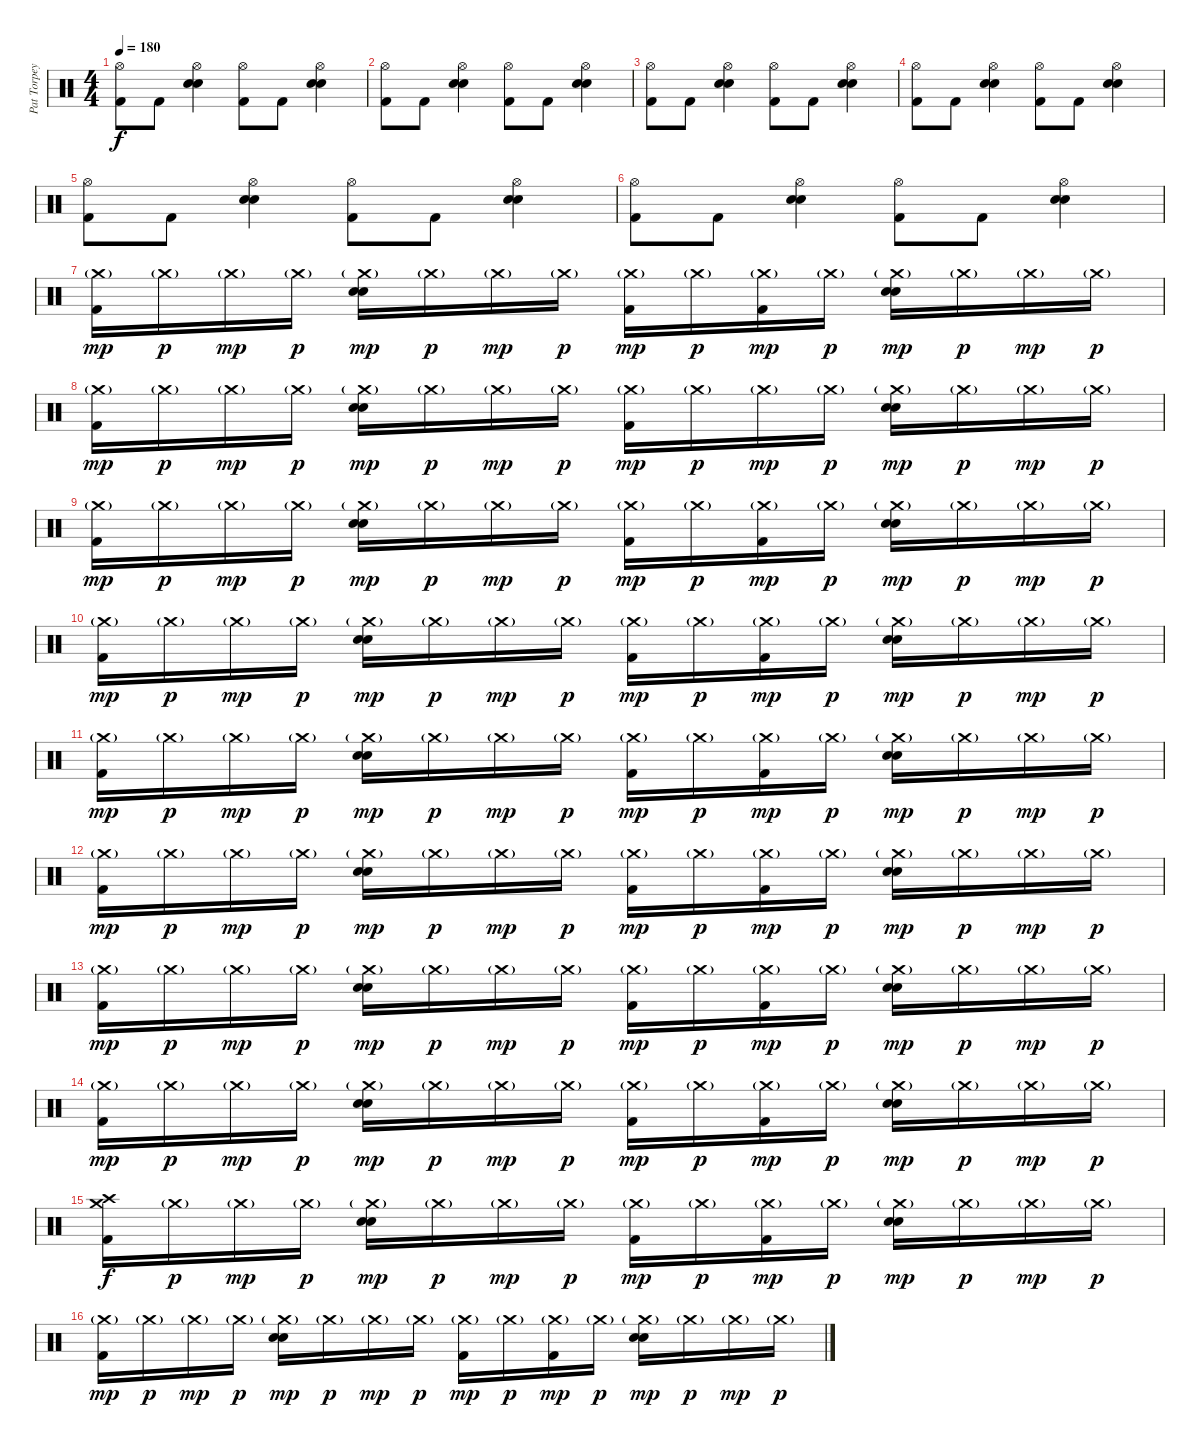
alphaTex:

\track ("Pat Torpey" "Pat Torpey") {instrument percussion}
\staff {score}
\articulation defaults
\ts (4 4)
\tempo 180
\clef neutral
\ks c
("Hi-Hat (open)" "Kick (hit) 2").8{dy f} "Kick (hit) 2".8 ("Hi-Hat (open)" "Snare (hit) 2" "Electric Snare (hit)").4 ("Hi-Hat (open)" "Kick (hit) 2").8 "Kick (hit) 2".8 ("Hi-Hat (open)" "Snare (hit) 2" "Electric Snare (hit)").4 |
("Hi-Hat (open)" "Kick (hit) 2").8 "Kick (hit) 2".8 ("Hi-Hat (open)" "Snare (hit) 2" "Electric Snare (hit)").4 ("Hi-Hat (open)" "Kick (hit) 2").8 "Kick (hit) 2".8 ("Hi-Hat (open)" "Snare (hit) 2" "Electric Snare (hit)").4 |
("Hi-Hat (open)" "Kick (hit) 2").8 "Kick (hit) 2".8 ("Hi-Hat (open)" "Snare (hit) 2" "Electric Snare (hit)").4 ("Hi-Hat (open)" "Kick (hit) 2").8 "Kick (hit) 2".8 ("Hi-Hat (open)" "Snare (hit) 2" "Electric Snare (hit)").4 |
("Hi-Hat (open)" "Kick (hit) 2").8 "Kick (hit) 2".8 ("Hi-Hat (open)" "Snare (hit) 2" "Electric Snare (hit)").4 ("Hi-Hat (open)" "Kick (hit) 2").8 "Kick (hit) 2".8 ("Hi-Hat (open)" "Snare (hit) 2" "Electric Snare (hit)").4 |
("Hi-Hat (open)" "Kick (hit) 2").8 "Kick (hit) 2".8 ("Hi-Hat (open)" "Snare (hit) 2" "Electric Snare (hit)").4 ("Hi-Hat (open)" "Kick (hit) 2").8 "Kick (hit) 2".8 ("Hi-Hat (open)" "Snare (hit) 2" "Electric Snare (hit)").4 |
("Hi-Hat (open)" "Kick (hit) 2").8 "Kick (hit) 2".8 ("Hi-Hat (open)" "Snare (hit) 2" "Electric Snare (hit)").4 ("Hi-Hat (open)" "Kick (hit) 2").8 "Kick (hit) 2".8 ("Hi-Hat (open)" "Snare (hit) 2" "Electric Snare (hit)").4 |
("Crash medium (hit)"{g} "Kick (hit) 2").16{dy mp} "Crash medium (hit)"{g}.16{dy p} "Crash medium (hit)"{g}.16{dy mp} "Crash medium (hit)"{g}.16{dy p} ("Crash medium (hit)"{g} "Snare (hit) 2" "Electric Snare (hit)").16{dy mp} "Crash medium (hit)"{g}.16{dy p} "Crash medium (hit)"{g}.16{dy mp} "Crash medium (hit)"{g}.16{dy p} ("Crash medium (hit)"{g} "Kick (hit) 2").16{dy mp} "Crash medium (hit)"{g}.16{dy p} ("Crash medium (hit)"{g} "Kick (hit) 2").16{dy mp} "Crash medium (hit)"{g}.16{dy p} ("Crash medium (hit)"{g} "Snare (hit) 2" "Electric Snare (hit)").16{dy mp} "Crash medium (hit)"{g}.16{dy p} "Crash medium (hit)"{g}.16{dy mp} "Crash medium (hit)"{g}.16{dy p} |
("Crash medium (hit)"{g} "Kick (hit) 2").16{dy mp} "Crash medium (hit)"{g}.16{dy p} "Crash medium (hit)"{g}.16{dy mp} "Crash medium (hit)"{g}.16{dy p} ("Crash medium (hit)"{g} "Snare (hit) 2" "Electric Snare (hit)").16{dy mp} "Crash medium (hit)"{g}.16{dy p} "Crash medium (hit)"{g}.16{dy mp} "Crash medium (hit)"{g}.16{dy p} ("Crash medium (hit)"{g} "Kick (hit) 2").16{dy mp} "Crash medium (hit)"{g}.16{dy p} "Crash medium (hit)"{g}.16{dy mp} "Crash medium (hit)"{g}.16{dy p} ("Crash medium (hit)"{g} "Snare (hit) 2" "Electric Snare (hit)").16{dy mp} "Crash medium (hit)"{g}.16{dy p} "Crash medium (hit)"{g}.16{dy mp} "Crash medium (hit)"{g}.16{dy p} |
("Crash medium (hit)"{g} "Kick (hit) 2").16{dy mp} "Crash medium (hit)"{g}.16{dy p} "Crash medium (hit)"{g}.16{dy mp} "Crash medium (hit)"{g}.16{dy p} ("Crash medium (hit)"{g} "Snare (hit) 2" "Electric Snare (hit)").16{dy mp} "Crash medium (hit)"{g}.16{dy p} "Crash medium (hit)"{g}.16{dy mp} "Crash medium (hit)"{g}.16{dy p} ("Crash medium (hit)"{g} "Kick (hit) 2").16{dy mp} "Crash medium (hit)"{g}.16{dy p} ("Crash medium (hit)"{g} "Kick (hit) 2").16{dy mp} "Crash medium (hit)"{g}.16{dy p} ("Crash medium (hit)"{g} "Snare (hit) 2" "Electric Snare (hit)").16{dy mp} "Crash medium (hit)"{g}.16{dy p} "Crash medium (hit)"{g}.16{dy mp} "Crash medium (hit)"{g}.16{dy p} |
("Crash medium (hit)"{g} "Kick (hit) 2").16{dy mp} "Crash medium (hit)"{g}.16{dy p} "Crash medium (hit)"{g}.16{dy mp} "Crash medium (hit)"{g}.16{dy p} ("Crash medium (hit)"{g} "Snare (hit) 2" "Electric Snare (hit)").16{dy mp} "Crash medium (hit)"{g}.16{dy p} "Crash medium (hit)"{g}.16{dy mp} "Crash medium (hit)"{g}.16{dy p} ("Crash medium (hit)"{g} "Kick (hit) 2").16{dy mp} "Crash medium (hit)"{g}.16{dy p} ("Crash medium (hit)"{g} "Kick (hit) 2").16{dy mp} "Crash medium (hit)"{g}.16{dy p} ("Crash medium (hit)"{g} "Snare (hit) 2" "Electric Snare (hit)").16{dy mp} "Crash medium (hit)"{g}.16{dy p} "Crash medium (hit)"{g}.16{dy mp} "Crash medium (hit)"{g}.16{dy p} |
("Crash medium (hit)"{g} "Kick (hit) 2").16{dy mp} "Crash medium (hit)"{g}.16{dy p} "Crash medium (hit)"{g}.16{dy mp} "Crash medium (hit)"{g}.16{dy p} ("Crash medium (hit)"{g} "Snare (hit) 2" "Electric Snare (hit)").16{dy mp} "Crash medium (hit)"{g}.16{dy p} "Crash medium (hit)"{g}.16{dy mp} "Crash medium (hit)"{g}.16{dy p} ("Crash medium (hit)"{g} "Kick (hit) 2").16{dy mp} "Crash medium (hit)"{g}.16{dy p} ("Crash medium (hit)"{g} "Kick (hit) 2").16{dy mp} "Crash medium (hit)"{g}.16{dy p} ("Crash medium (hit)"{g} "Snare (hit) 2" "Electric Snare (hit)").16{dy mp} "Crash medium (hit)"{g}.16{dy p} "Crash medium (hit)"{g}.16{dy mp} "Crash medium (hit)"{g}.16{dy p} |
("Crash medium (hit)"{g} "Kick (hit) 2").16{dy mp} "Crash medium (hit)"{g}.16{dy p} "Crash medium (hit)"{g}.16{dy mp} "Crash medium (hit)"{g}.16{dy p} ("Crash medium (hit)"{g} "Snare (hit) 2" "Electric Snare (hit)").16{dy mp} "Crash medium (hit)"{g}.16{dy p} "Crash medium (hit)"{g}.16{dy mp} "Crash medium (hit)"{g}.16{dy p} ("Crash medium (hit)"{g} "Kick (hit) 2").16{dy mp} "Crash medium (hit)"{g}.16{dy p} ("Crash medium (hit)"{g} "Kick (hit) 2").16{dy mp} "Crash medium (hit)"{g}.16{dy p} ("Crash medium (hit)"{g} "Snare (hit) 2" "Electric Snare (hit)").16{dy mp} "Crash medium (hit)"{g}.16{dy p} "Crash medium (hit)"{g}.16{dy mp} "Crash medium (hit)"{g}.16{dy p} |
("Crash medium (hit)"{g} "Kick (hit) 2").16{dy mp} "Crash medium (hit)"{g}.16{dy p} "Crash medium (hit)"{g}.16{dy mp} "Crash medium (hit)"{g}.16{dy p} ("Crash medium (hit)"{g} "Snare (hit) 2" "Electric Snare (hit)").16{dy mp} "Crash medium (hit)"{g}.16{dy p} "Crash medium (hit)"{g}.16{dy mp} "Crash medium (hit)"{g}.16{dy p} ("Crash medium (hit)"{g} "Kick (hit) 2").16{dy mp} "Crash medium (hit)"{g}.16{dy p} ("Crash medium (hit)"{g} "Kick (hit) 2").16{dy mp} "Crash medium (hit)"{g}.16{dy p} ("Crash medium (hit)"{g} "Snare (hit) 2" "Electric Snare (hit)").16{dy mp} "Crash medium (hit)"{g}.16{dy p} "Crash medium (hit)"{g}.16{dy mp} "Crash medium (hit)"{g}.16{dy p} |
("Crash medium (hit)"{g} "Kick (hit) 2").16{dy mp} "Crash medium (hit)"{g}.16{dy p} "Crash medium (hit)"{g}.16{dy mp} "Crash medium (hit)"{g}.16{dy p} ("Crash medium (hit)"{g} "Snare (hit) 2" "Electric Snare (hit)").16{dy mp} "Crash medium (hit)"{g}.16{dy p} "Crash medium (hit)"{g}.16{dy mp} "Crash medium (hit)"{g}.16{dy p} ("Crash medium (hit)"{g} "Kick (hit) 2").16{dy mp} "Crash medium (hit)"{g}.16{dy p} ("Crash medium (hit)"{g} "Kick (hit) 2").16{dy mp} "Crash medium (hit)"{g}.16{dy p} ("Crash medium (hit)"{g} "Snare (hit) 2" "Electric Snare (hit)").16{dy mp} "Crash medium (hit)"{g}.16{dy p} "Crash medium (hit)"{g}.16{dy mp} "Crash medium (hit)"{g}.16{dy p} |
("Crash medium (hit)" "Crash high (hit)" "Kick (hit) 2").16{dy f} "Crash medium (hit)"{g}.16{dy p} "Crash medium (hit)"{g}.16{dy mp} "Crash medium (hit)"{g}.16{dy p} ("Crash medium (hit)"{g} "Snare (hit) 2" "Electric Snare (hit)").16{dy mp} "Crash medium (hit)"{g}.16{dy p} "Crash medium (hit)"{g}.16{dy mp} "Crash medium (hit)"{g}.16{dy p} ("Crash medium (hit)"{g} "Kick (hit) 2").16{dy mp} "Crash medium (hit)"{g}.16{dy p} ("Crash medium (hit)"{g} "Kick (hit) 2").16{dy mp} "Crash medium (hit)"{g}.16{dy p} ("Crash medium (hit)"{g} "Snare (hit) 2" "Electric Snare (hit)").16{dy mp} "Crash medium (hit)"{g}.16{dy p} "Crash medium (hit)"{g}.16{dy mp} "Crash medium (hit)"{g}.16{dy p} |
("Crash medium (hit)"{g} "Kick (hit) 2").16{dy mp} "Crash medium (hit)"{g}.16{dy p} "Crash medium (hit)"{g}.16{dy mp} "Crash medium (hit)"{g}.16{dy p} ("Crash medium (hit)"{g} "Snare (hit) 2" "Electric Snare (hit)").16{dy mp} "Crash medium (hit)"{g}.16{dy p} "Crash medium (hit)"{g}.16{dy mp} "Crash medium (hit)"{g}.16{dy p} ("Crash medium (hit)"{g} "Kick (hit) 2").16{dy mp} "Crash medium (hit)"{g}.16{dy p} ("Crash medium (hit)"{g} "Kick (hit) 2").16{dy mp} "Crash medium (hit)"{g}.16{dy p} ("Crash medium (hit)"{g} "Snare (hit) 2" "Electric Snare (hit)").16{dy mp} "Crash medium (hit)"{g}.16{dy p} "Crash medium (hit)"{g}.16{dy mp} "Crash medium (hit)"{g}.16{dy p}
